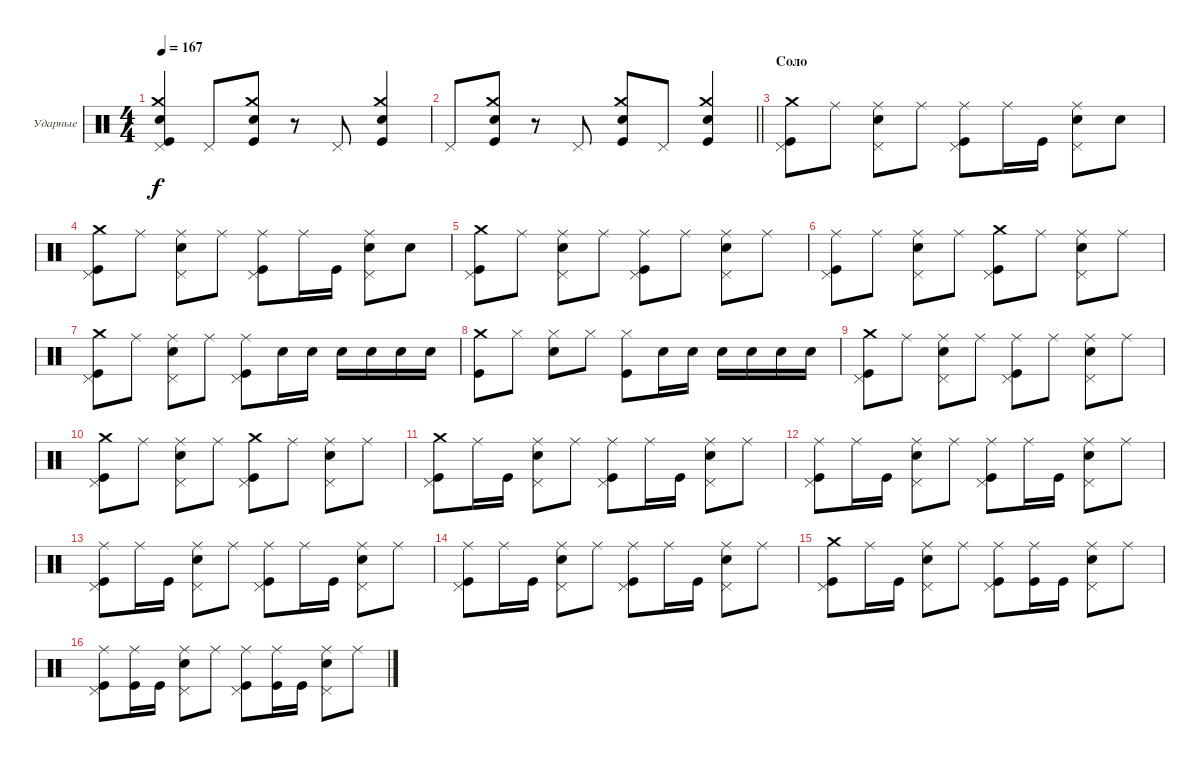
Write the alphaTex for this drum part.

\bracketExtendMode groupsimilarinstruments
\firstSystemTrackNameOrientation horizontal
\otherSystemsTrackNameOrientation horizontal
\track ("Максим Удалов" "Ударные") {instrument percussion}
\staff {score}
\articulation defaults
\ts (4 4)
\tempo 167
\clef neutral
\ks aminor
("Snare (hit) 2" "Crash medium (hit)" "Kick (hit)" "Pedal Hi-Hat (hit)").4{dy f} "Pedal Hi-Hat (hit)".8 ("Crash medium (hit)" "Kick (hit)" "Snare (hit) 2").8 r.8 "Pedal Hi-Hat (hit)".8 ("Crash medium (hit)" "Snare (hit) 2" "Kick (hit)").4 |
\barLineRight lightlight "Pedal Hi-Hat (hit)".8
("Crash medium (hit)" "Kick (hit)" "Snare (hit) 2").8 r.8 "Pedal Hi-Hat (hit)".8 ("Kick (hit)" "Snare (hit) 2" "Crash medium (hit)").8 "Pedal Hi-Hat (hit)".8 ("Kick (hit)" "Snare (hit) 2" "Crash medium (hit)").4 |
\section ("" "Соло")
("Kick (hit)" "Crash medium (hit)" "Pedal Hi-Hat (hit)").8 "Ride (middle)".8 ("Snare (hit) 2" "Ride (middle)" "Pedal Hi-Hat (hit)").8 "Ride (middle)".8 ("Ride (middle)" "Kick (hit)" "Pedal Hi-Hat (hit)").8 "Ride (middle)".16 "Kick (hit)".16 ("Snare (hit) 2" "Ride (middle)" "Pedal Hi-Hat (hit)").8 "Snare (hit) 2".8 |
("Kick (hit)" "Crash medium (hit)" "Pedal Hi-Hat (hit)").8 "Ride (middle)".8 ("Snare (hit) 2" "Ride (middle)" "Pedal Hi-Hat (hit)").8 "Ride (middle)".8 ("Ride (middle)" "Kick (hit)" "Pedal Hi-Hat (hit)").8 "Ride (middle)".16 "Kick (hit)".16 ("Snare (hit) 2" "Ride (middle)" "Pedal Hi-Hat (hit)").8 "Snare (hit) 2".8 |
("Kick (hit)" "Crash medium (hit)" "Pedal Hi-Hat (hit)").8 "Ride (middle)".8 ("Snare (hit) 2" "Ride (middle)" "Pedal Hi-Hat (hit)").8 "Ride (middle)".8 ("Ride (middle)" "Kick (hit)" "Pedal Hi-Hat (hit)").8 "Ride (middle)".8 ("Snare (hit) 2" "Ride (middle)" "Pedal Hi-Hat (hit)").8 "Ride (middle)".8 |
("Pedal Hi-Hat (hit)" "Kick (hit)" "Ride (middle)").8 "Ride (middle)".8 ("Snare (hit) 2" "Ride (middle)" "Pedal Hi-Hat (hit)").8 "Ride (middle)".8 ("Crash medium (hit)" "Kick (hit)" "Pedal Hi-Hat (hit)").8 "Ride (middle)".8 ("Ride (middle)" "Snare (hit) 2" "Pedal Hi-Hat (hit)").8 "Ride (middle)".8 |
("Kick (hit)" "Crash medium (hit)" "Pedal Hi-Hat (hit)").8 "Ride (middle)".8 ("Snare (hit) 2" "Ride (middle)" "Pedal Hi-Hat (hit)").8 "Ride (middle)".8 ("Pedal Hi-Hat (hit)" "Kick (hit)" "Ride (middle)").8 "Snare (hit) 2".16 "Snare (hit) 2".16 "Snare (hit) 2".16 "Snare (hit) 2".16 "Snare (hit) 2".16 "Snare (hit) 2".16 |
("Crash medium (hit)" "Kick (hit)").8 "Hi-Hat (closed)".8 ("Hi-Hat (closed)" "Snare (hit) 2").8 "Hi-Hat (closed)".8 ("Hi-Hat (closed)" "Kick (hit)").8 "Snare (hit) 2".16 "Snare (hit) 2".16 "Snare (hit) 2".16 "Snare (hit) 2".16 "Snare (hit) 2".16 "Snare (hit) 2".16 |
("Kick (hit)" "Crash medium (hit)" "Pedal Hi-Hat (hit)").8 "Ride (middle)".8 ("Snare (hit) 2" "Ride (middle)" "Pedal Hi-Hat (hit)").8 "Ride (middle)".8 ("Ride (middle)" "Kick (hit)" "Pedal Hi-Hat (hit)").8 "Ride (middle)".8 ("Snare (hit) 2" "Ride (middle)" "Pedal Hi-Hat (hit)").8 "Ride (middle)".8 |
("Pedal Hi-Hat (hit)" "Kick (hit)" "Crash medium (hit)").8 "Ride (middle)".8 ("Snare (hit) 2" "Ride (middle)" "Pedal Hi-Hat (hit)").8 "Ride (middle)".8 ("Crash medium (hit)" "Kick (hit)" "Pedal Hi-Hat (hit)").8 "Ride (middle)".8 ("Ride (middle)" "Snare (hit) 2" "Pedal Hi-Hat (hit)").8 "Ride (middle)".8 |
("Kick (hit)" "Pedal Hi-Hat (hit)" "Crash medium (hit)").8 "Ride (middle)".16 "Kick (hit)".16 ("Ride (middle)" "Snare (hit) 2" "Pedal Hi-Hat (hit)").8 "Ride (middle)".8 ("Ride (middle)" "Kick (hit)" "Pedal Hi-Hat (hit)").8 "Ride (middle)".16 "Kick (hit)".16 ("Ride (middle)" "Snare (hit) 2" "Pedal Hi-Hat (hit)").8 "Ride (middle)".8 |
("Kick (hit)" "Ride (middle)" "Pedal Hi-Hat (hit)").8 "Ride (middle)".16 "Kick (hit)".16 ("Snare (hit) 2" "Ride (middle)" "Pedal Hi-Hat (hit)").8 "Ride (middle)".8 ("Ride (middle)" "Kick (hit)" "Pedal Hi-Hat (hit)").8 "Ride (middle)".16 "Kick (hit)".16 ("Snare (hit) 2" "Ride (middle)" "Pedal Hi-Hat (hit)").8 "Ride (middle)".8 |
("Kick (hit)" "Pedal Hi-Hat (hit)" "Ride (middle)").8 "Ride (middle)".16 "Kick (hit)".16 ("Ride (middle)" "Snare (hit) 2" "Pedal Hi-Hat (hit)").8 "Ride (middle)".8 ("Ride (middle)" "Kick (hit)" "Pedal Hi-Hat (hit)").8 "Ride (middle)".16 "Kick (hit)".16 ("Ride (middle)" "Snare (hit) 2" "Pedal Hi-Hat (hit)").8 "Ride (middle)".8 |
("Kick (hit)" "Ride (middle)" "Pedal Hi-Hat (hit)").8 "Ride (middle)".16 "Kick (hit)".16 ("Snare (hit) 2" "Ride (middle)" "Pedal Hi-Hat (hit)").8 "Ride (middle)".8 ("Ride (middle)" "Kick (hit)" "Pedal Hi-Hat (hit)").8 "Ride (middle)".16 "Kick (hit)".16 ("Snare (hit) 2" "Ride (middle)" "Pedal Hi-Hat (hit)").8 "Ride (middle)".8 |
("Kick (hit)" "Pedal Hi-Hat (hit)" "Crash medium (hit)").8 "Ride (middle)".16 "Kick (hit)".16 ("Ride (middle)" "Snare (hit) 2" "Pedal Hi-Hat (hit)").8 "Ride (middle)".8 ("Ride (middle)" "Kick (hit)" "Pedal Hi-Hat (hit)").8 ("Ride (middle)" "Kick (hit)").16 "Kick (hit)".16 ("Ride (middle)" "Snare (hit) 2" "Pedal Hi-Hat (hit)").8 "Ride (middle)".8 |
("Kick (hit)" "Ride (middle)" "Pedal Hi-Hat (hit)").8 ("Ride (middle)" "Kick (hit)").16 "Kick (hit)".16 ("Snare (hit) 2" "Ride (middle)" "Pedal Hi-Hat (hit)").8 "Ride (middle)".8 ("Ride (middle)" "Kick (hit)" "Pedal Hi-Hat (hit)").8 ("Ride (middle)" "Kick (hit)").16 "Kick (hit)".16 ("Snare (hit) 2" "Ride (middle)" "Pedal Hi-Hat (hit)").8 "Ride (middle)".8
